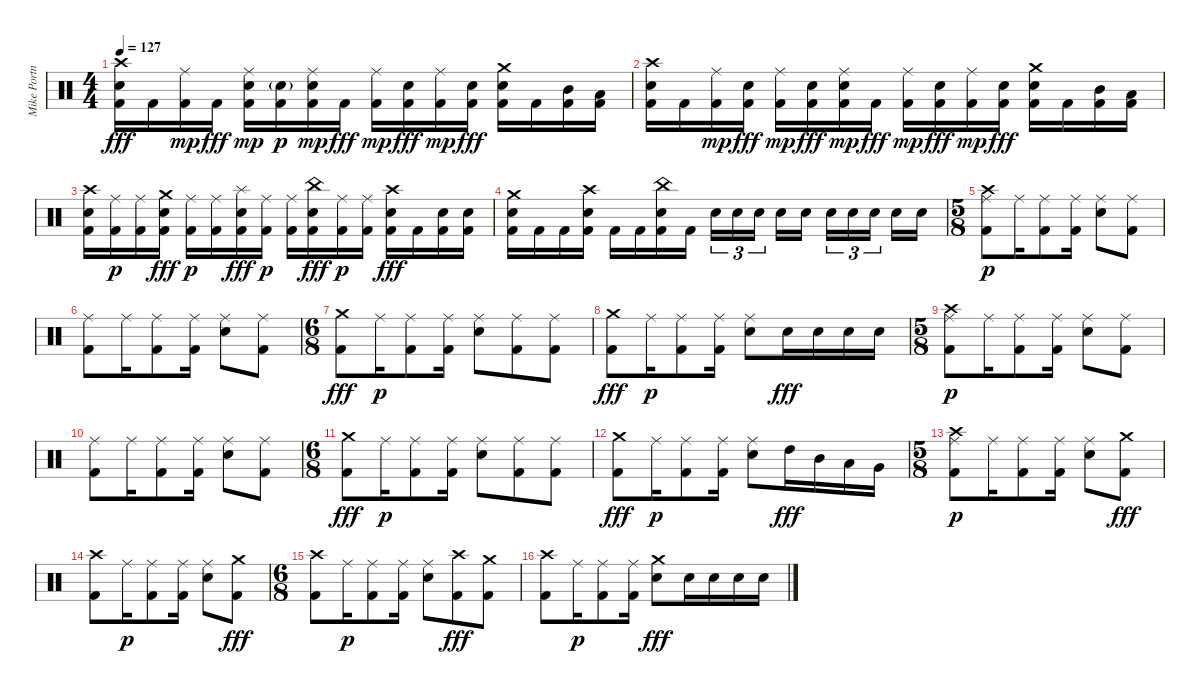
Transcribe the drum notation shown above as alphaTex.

\track ("Mike Portnoy" "Mike Portn") {instrument percussion}
\staff {score}
\articulation defaults
\ts (4 4)
\tempo 127
\clef neutral
\ks c
("Kick (hit) 2" "Electric Snare (hit)" "Crash high (hit)").16{dy fff} "Kick (hit) 2".16 ("Kick (hit) 2" "Ride (middle)").16{dy mp} "Kick (hit) 2".16{dy fff} ("Kick (hit) 2" "Electric Snare (hit)" "Ride (middle)").16{dy mp} ("Kick (hit) 2" "Electric Snare (hit)"{g}).16{dy p} ("Kick (hit) 2" "Electric Snare (hit)" "Ride (middle)").16{dy mp} "Kick (hit) 2".16{dy fff} ("Kick (hit) 2" "Ride (middle)").16{dy mp} ("Kick (hit) 2" "Electric Snare (hit)").16{dy fff} ("Kick (hit) 2" "Ride (middle)").16{dy mp} ("Kick (hit) 2" "Electric Snare (hit)").16{dy fff} ("Kick (hit) 2" "Electric Snare (hit)" "Crash medium (hit)").16 "Kick (hit) 2".16 ("Kick (hit) 2" "Mid Tom (hit)").16 ("Kick (hit) 2" "Low Tom (hit)").16 |
("Kick (hit) 2" "Electric Snare (hit)" "Crash high (hit)").16 "Kick (hit) 2".16 ("Kick (hit) 2" "Ride (middle)").16{dy mp} ("Kick (hit) 2" "Electric Snare (hit)").16{dy fff} ("Kick (hit) 2" "Ride (middle)").16{dy mp} ("Kick (hit) 2" "Electric Snare (hit)").16{dy fff} ("Kick (hit) 2" "Electric Snare (hit)" "Ride (middle)").16{dy mp} "Kick (hit) 2".16{dy fff} ("Kick (hit) 2" "Ride (middle)").16{dy mp} ("Kick (hit) 2" "Electric Snare (hit)").16{dy fff} ("Kick (hit) 2" "Ride (middle)").16{dy mp} ("Kick (hit) 2" "Electric Snare (hit)").16{dy fff} ("Kick (hit) 2" "Electric Snare (hit)" "Crash medium (hit)").16 "Kick (hit) 2".16 ("Kick (hit) 2" "Mid Tom (hit)").16 ("Kick (hit) 2" "Low Tom (hit)").16 |
("Kick (hit) 2" "Electric Snare (hit)" "Crash high (hit)").16 ("Kick (hit) 2" "Ride (middle)").16{dy p} ("Kick (hit) 2" "Ride (middle)").16 ("Kick (hit) 2" "Electric Snare (hit)" "Crash medium (hit)").16{dy fff} ("Kick (hit) 2" "Ride (middle)").16{dy p} ("Kick (hit) 2" "Ride (middle)").16 ("Kick (hit) 2" "Electric Snare (hit)" "Splash (hit)").16{dy fff} ("Kick (hit) 2" "Ride (middle)").16{dy p} ("Kick (hit) 2" "Ride (middle)").16 ("Kick (hit) 2" "Electric Snare (hit)" "China (hit)").16{dy fff} ("Kick (hit) 2" "Ride (middle)").16{dy p} ("Kick (hit) 2" "Ride (middle)").16 ("Kick (hit) 2" "Electric Snare (hit)" "Crash high (hit)").16{dy fff} "Kick (hit) 2".16 ("Kick (hit) 2" "Electric Snare (hit)").16 ("Kick (hit) 2" "Electric Snare (hit)").16 |
("Kick (hit) 2" "Electric Snare (hit)" "Crash medium (hit)").16 "Kick (hit) 2".16 "Kick (hit) 2".16 ("Kick (hit) 2" "Electric Snare (hit)" "Crash high (hit)").16 "Kick (hit) 2".16 "Kick (hit) 2".16 ("Kick (hit) 2" "Electric Snare (hit)" "China (hit)").16 "Kick (hit) 2".16 "Electric Snare (hit)".16{tu (3 2)} "Electric Snare (hit)".16{tu (3 2)} "Electric Snare (hit)".16{tu (3 2) beam splitsecondary} "Electric Snare (hit)".16 "Electric Snare (hit)".16 "Electric Snare (hit)".16{tu (3 2)} "Electric Snare (hit)".16{tu (3 2)} "Electric Snare (hit)".16{tu (3 2) beam splitsecondary} "Electric Snare (hit)".16 "Electric Snare (hit)".16 |
\ts (5 8)
("Kick (hit) 2" "Ride (middle)" "Crash high (hit)").8{dy p} "Ride (middle)".16 ("Kick (hit) 2" "Ride (middle)").8 ("Kick (hit) 2" "Ride (middle)").16 ("Electric Snare (hit)" "Ride (middle)").8 ("Kick (hit) 2" "Ride (middle)").8 |
("Kick (hit) 2" "Ride (middle)").8 "Ride (middle)".16 ("Kick (hit) 2" "Ride (middle)").8 ("Kick (hit) 2" "Ride (middle)").16 ("Electric Snare (hit)" "Ride (middle)").8 ("Kick (hit) 2" "Ride (middle)").8 |
\ts (6 8)
("Kick (hit) 2" "Crash medium (hit)").8{dy fff} "Ride (middle)".16{dy p} ("Kick (hit) 2" "Ride (middle)").8 ("Kick (hit) 2" "Ride (middle)").16 ("Electric Snare (hit)" "Ride (middle)").8 ("Kick (hit) 2" "Ride (middle)").8 ("Kick (hit) 2" "Ride (middle)").8 |
("Kick (hit) 2" "Crash medium (hit)").8{dy fff} "Ride (middle)".16{dy p} ("Kick (hit) 2" "Ride (middle)").8 ("Kick (hit) 2" "Ride (middle)").16 ("Electric Snare (hit)" "Ride (middle)").8 "Electric Snare (hit)".16{dy fff} "Electric Snare (hit)".16 "Electric Snare (hit)".16 "Electric Snare (hit)".16 |
\ts (5 8)
("Kick (hit) 2" "Ride (middle)" "Crash high (hit)").8{dy p} "Ride (middle)".16 ("Kick (hit) 2" "Ride (middle)").8 ("Kick (hit) 2" "Ride (middle)").16 ("Electric Snare (hit)" "Ride (middle)").8 ("Kick (hit) 2" "Ride (middle)").8 |
("Kick (hit) 2" "Ride (middle)").8 "Ride (middle)".16 ("Kick (hit) 2" "Ride (middle)").8 ("Kick (hit) 2" "Ride (middle)").16 ("Electric Snare (hit)" "Ride (middle)").8 ("Kick (hit) 2" "Ride (middle)").8 |
\ts (6 8)
("Kick (hit) 2" "Crash medium (hit)").8{dy fff} "Ride (middle)".16{dy p} ("Kick (hit) 2" "Ride (middle)").8 ("Kick (hit) 2" "Ride (middle)").16 ("Electric Snare (hit)" "Ride (middle)").8 ("Kick (hit) 2" "Ride (middle)").8 ("Kick (hit) 2" "Ride (middle)").8 |
("Kick (hit) 2" "Crash medium (hit)").8{dy fff} "Ride (middle)".16{dy p} ("Kick (hit) 2" "Ride (middle)").8 ("Kick (hit) 2" "Ride (middle)").16 ("Electric Snare (hit)" "Ride (middle)").8 "High Tom (hit)".16{dy fff} "Mid Tom (hit)".16 "Low Tom (hit)".16 "Very Low Tom (hit)".16 |
\ts (5 8)
("Kick (hit) 2" "Ride (middle)" "Crash high (hit)").8{dy p} "Ride (middle)".16 ("Kick (hit) 2" "Ride (middle)").8 ("Kick (hit) 2" "Ride (middle)").16 ("Electric Snare (hit)" "Ride (middle)").8 ("Kick (hit) 2" "Crash medium (hit)").8{dy fff} |
("Kick (hit) 2" "Crash high (hit)").8 "Ride (middle)".16{dy p} ("Kick (hit) 2" "Ride (middle)").8 ("Kick (hit) 2" "Ride (middle)").16 ("Electric Snare (hit)" "Ride (middle)").8 ("Kick (hit) 2" "Crash medium (hit)").8{dy fff} |
\ts (6 8)
("Kick (hit) 2" "Crash high (hit)").8 "Ride (middle)".16{dy p} ("Kick (hit) 2" "Ride (middle)").8 ("Kick (hit) 2" "Ride (middle)").16 ("Electric Snare (hit)" "Ride (middle)").8 ("Kick (hit) 2" "Crash high (hit)").8{dy fff} ("Kick (hit) 2" "Crash medium (hit)").8 |
("Kick (hit) 2" "Crash high (hit)").8 "Ride (middle)".16{dy p} ("Kick (hit) 2" "Ride (middle)").8 ("Kick (hit) 2" "Ride (middle)").16 ("Electric Snare (hit)" "Crash medium (hit)").8{dy fff} "Electric Snare (hit)".16 "Electric Snare (hit)".16 "Electric Snare (hit)".16 "Electric Snare (hit)".16
